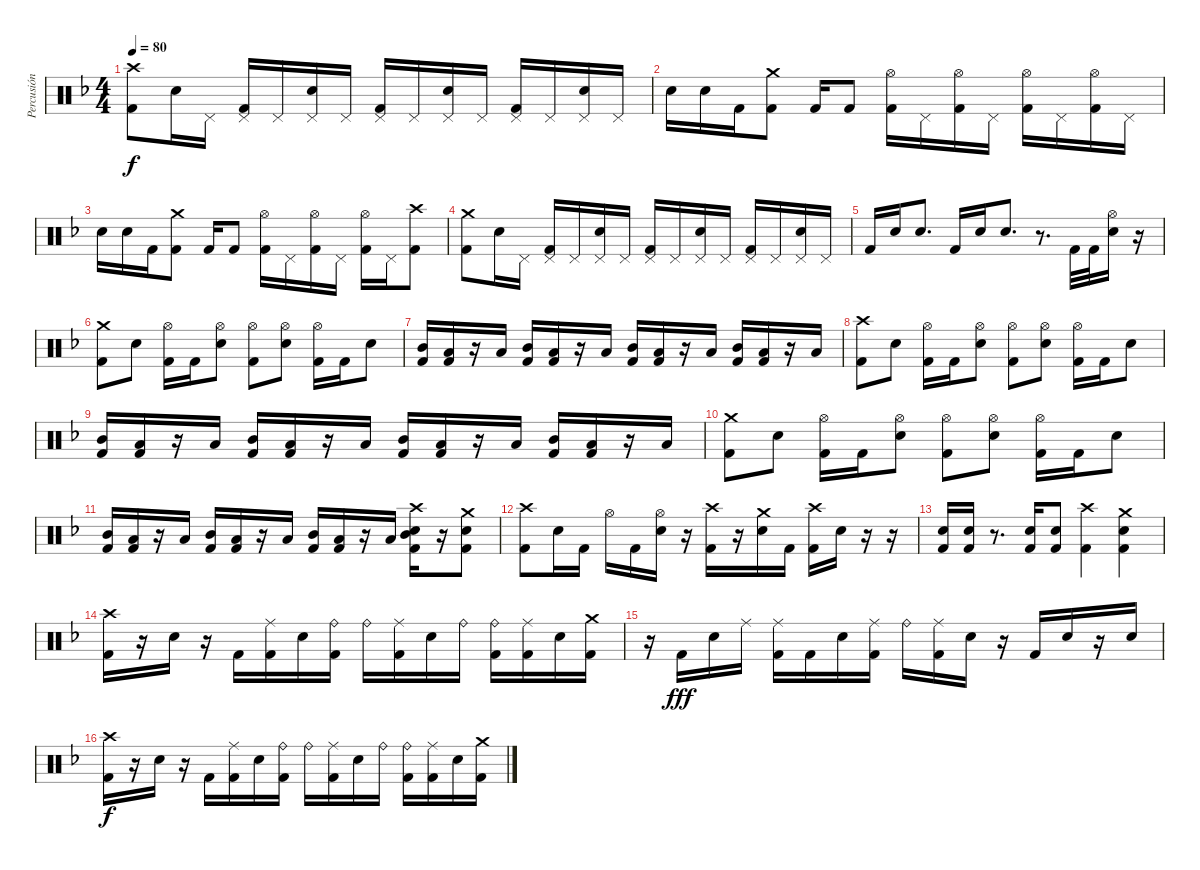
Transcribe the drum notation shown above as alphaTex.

\track ("Percusión" "Percusión") {instrument percussion}
\staff {score}
\articulation defaults
\ts (4 4)
\tempo 80
\clef neutral
\ks f
("Crash high (hit)" "Kick (hit) 2").8{dy f} "Electric Snare (hit)".16 "Pedal Hi-Hat (hit)".16 ("Pedal Hi-Hat (hit)" "Kick (hit) 2").16 "Pedal Hi-Hat (hit)".16 ("Pedal Hi-Hat (hit)" "Electric Snare (hit)").16 "Pedal Hi-Hat (hit)".16 ("Pedal Hi-Hat (hit)" "Kick (hit) 2").16 "Pedal Hi-Hat (hit)".16 ("Pedal Hi-Hat (hit)" "Electric Snare (hit)").16 "Pedal Hi-Hat (hit)".16 ("Pedal Hi-Hat (hit)" "Kick (hit) 2").16 "Pedal Hi-Hat (hit)".16 ("Pedal Hi-Hat (hit)" "Electric Snare (hit)").16 "Pedal Hi-Hat (hit)".16 |
"Electric Snare (hit)".16 "Electric Snare (hit)".16 "Kick (hit) 2".16 ("Crash medium (hit)" "Kick (hit) 2").8 "Kick (hit) 2".16 "Kick (hit) 2".8 ("Hi-Hat (open)" "Kick (hit) 2").16 "Pedal Hi-Hat (hit)".16 ("Hi-Hat (open)" "Kick (hit) 2").16 "Pedal Hi-Hat (hit)".16 ("Hi-Hat (open)" "Kick (hit) 2").16 "Pedal Hi-Hat (hit)".16 ("Hi-Hat (open)" "Kick (hit) 2").16 "Pedal Hi-Hat (hit)".16 |
"Electric Snare (hit)".16 "Electric Snare (hit)".16 "Kick (hit) 2".16 ("Crash medium (hit)" "Kick (hit) 2").8 "Kick (hit) 2".16 "Kick (hit) 2".8 ("Hi-Hat (open)" "Kick (hit) 2").16 "Pedal Hi-Hat (hit)".16 ("Hi-Hat (open)" "Kick (hit) 2").16 "Pedal Hi-Hat (hit)".16 ("Hi-Hat (open)" "Kick (hit) 2").16 "Pedal Hi-Hat (hit)".16 ("Crash high (hit)" "Kick (hit) 2").8 |
("Crash medium (hit)" "Kick (hit) 2").8 "Electric Snare (hit)".16 "Pedal Hi-Hat (hit)".16 ("Pedal Hi-Hat (hit)" "Kick (hit) 2").16 "Pedal Hi-Hat (hit)".16 ("Pedal Hi-Hat (hit)" "Electric Snare (hit)").16 "Pedal Hi-Hat (hit)".16 ("Pedal Hi-Hat (hit)" "Kick (hit) 2").16 "Pedal Hi-Hat (hit)".16 ("Pedal Hi-Hat (hit)" "Electric Snare (hit)").16 "Pedal Hi-Hat (hit)".16 ("Pedal Hi-Hat (hit)" "Kick (hit) 2").16 "Pedal Hi-Hat (hit)".16 ("Pedal Hi-Hat (hit)" "Electric Snare (hit)").16 "Pedal Hi-Hat (hit)".16 |
"Kick (hit) 2".16 "Electric Snare (hit)".16 "Electric Snare (hit)".8{d} "Kick (hit) 2".16 "Electric Snare (hit)".16 "Electric Snare (hit)".8{d} r.8{d} "Kick (hit) 2".32 "Kick (hit) 2".32 ("Hi-Hat (open)" "Electric Snare (hit)").16 r.16 |
("Crash medium (hit)" "Kick (hit) 2").8 "Electric Snare (hit)".8 ("Hi-Hat (open)" "Kick (hit) 2").16 "Kick (hit) 2".16 ("Hi-Hat (open)" "Electric Snare (hit)").8 ("Hi-Hat (open)" "Kick (hit) 2").8 ("Hi-Hat (open)" "Electric Snare (hit)").8 ("Hi-Hat (open)" "Kick (hit) 2").16 "Kick (hit) 2".16 "Electric Snare (hit)".8 |
("Mid Tom (hit)" "Kick (hit) 2").16 ("Low Tom (hit)" "Kick (hit) 2").16 r.16 "Low Tom (hit)".16 ("Mid Tom (hit)" "Kick (hit) 2").16 ("Low Tom (hit)" "Kick (hit) 2").16 r.16 "Low Tom (hit)".16 ("Mid Tom (hit)" "Kick (hit) 2").16 ("Low Tom (hit)" "Kick (hit) 2").16 r.16 "Low Tom (hit)".16 ("Mid Tom (hit)" "Kick (hit) 2").16 ("Low Tom (hit)" "Kick (hit) 2").16 r.16 "Low Tom (hit)".16 |
("Crash high (hit)" "Kick (hit) 2").8 "Electric Snare (hit)".8 ("Hi-Hat (open)" "Kick (hit) 2").16 "Kick (hit) 2".16 ("Hi-Hat (open)" "Electric Snare (hit)").8 ("Hi-Hat (open)" "Kick (hit) 2").8 ("Hi-Hat (open)" "Electric Snare (hit)").8 ("Hi-Hat (open)" "Kick (hit) 2").16 "Kick (hit) 2".16 "Electric Snare (hit)".8 |
("Mid Tom (hit)" "Kick (hit) 2").16 ("Low Tom (hit)" "Kick (hit) 2").16 r.16 "Low Tom (hit)".16 ("Mid Tom (hit)" "Kick (hit) 2").16 ("Low Tom (hit)" "Kick (hit) 2").16 r.16 "Low Tom (hit)".16 ("Mid Tom (hit)" "Kick (hit) 2").16 ("Low Tom (hit)" "Kick (hit) 2").16 r.16 "Low Tom (hit)".16 ("Mid Tom (hit)" "Kick (hit) 2").16 ("Low Tom (hit)" "Kick (hit) 2").16 r.16 "Low Tom (hit)".16 |
("Crash medium (hit)" "Kick (hit) 2").8 "Electric Snare (hit)".8 ("Hi-Hat (open)" "Kick (hit) 2").16 "Kick (hit) 2".16 ("Hi-Hat (open)" "Electric Snare (hit)").8 ("Hi-Hat (open)" "Kick (hit) 2").8 ("Hi-Hat (open)" "Electric Snare (hit)").8 ("Hi-Hat (open)" "Kick (hit) 2").16 "Kick (hit) 2".16 "Electric Snare (hit)".8 |
("Mid Tom (hit)" "Kick (hit) 2").16 ("Low Tom (hit)" "Kick (hit) 2").16 r.16 "Low Tom (hit)".16 ("Mid Tom (hit)" "Kick (hit) 2").16 ("Low Tom (hit)" "Kick (hit) 2").16 r.16 "Low Tom (hit)".16 ("Mid Tom (hit)" "Kick (hit) 2").16 ("Low Tom (hit)" "Kick (hit) 2").16 r.16 "Low Tom (hit)".16 ("Crash high (hit)" "Electric Snare (hit)" "Mid Tom (hit)" "Kick (hit) 2").16 r.16 ("Crash medium (hit)" "Electric Snare (hit)" "Kick (hit) 2").8 |
("Crash high (hit)" "Kick (hit) 2").8 "Electric Snare (hit)".16 "Kick (hit) 2".16 "Hi-Hat (open)".16 "Kick (hit) 2".16 ("Hi-Hat (open)" "Electric Snare (hit)").16 r.16 ("Crash high (hit)" "Kick (hit) 2").16 r.16 ("Crash medium (hit)" "Electric Snare (hit)").16 "Kick (hit) 2".16 ("Crash high (hit)" "Kick (hit) 2").16 "Electric Snare (hit)".16 r.16 r.16 |
("Electric Snare (hit)" "Kick (hit) 2").16 ("Electric Snare (hit)" "Kick (hit) 2").16 r.8{d} ("Electric Snare (hit)" "Kick (hit) 2").16 ("Electric Snare (hit)" "Kick (hit) 2").8 ("Crash high (hit)" "Kick (hit) 2").4 ("Crash medium (hit)" "Electric Snare (hit)" "Kick (hit) 2").4 |
("Crash high (hit)" "Kick (hit) 2").16 r.16 "Electric Snare (hit)".16 r.16 "Kick (hit) 2".16 ("Ride (middle)" "Kick (hit) 2").16 "Electric Snare (hit)".16 ("Ride (bell)" "Kick (hit) 2").16 "Ride (bell)".16 ("Ride (middle)" "Kick (hit) 2").16 "Electric Snare (hit)".16 "Ride (bell)".16 ("Ride (bell)" "Kick (hit) 2").16 ("Ride (middle)" "Kick (hit) 2").16 "Electric Snare (hit)".16 ("Crash medium (hit)" "Kick (hit) 2").16 |
r.16 "Kick (hit) 2".16{dy fff} "Electric Snare (hit)".16 "Ride (middle)".16 ("Ride (middle)" "Kick (hit) 2").16 "Kick (hit) 2".16 "Electric Snare (hit)".16 ("Ride (middle)" "Kick (hit) 2").16 "Ride (bell)".16 ("Ride (middle)" "Kick (hit) 2").16 "Electric Snare (hit)".16 r.16 "Kick (hit) 2".16 "Electric Snare (hit)".16 r.16 "Electric Snare (hit)".16 |
("Crash high (hit)" "Kick (hit) 2").16{dy f} r.16 "Electric Snare (hit)".16 r.16 "Kick (hit) 2".16 ("Ride (middle)" "Kick (hit) 2").16 "Electric Snare (hit)".16 ("Ride (bell)" "Kick (hit) 2").16 "Ride (bell)".16 ("Ride (middle)" "Kick (hit) 2").16 "Electric Snare (hit)".16 "Ride (bell)".16 ("Ride (bell)" "Kick (hit) 2").16 ("Ride (middle)" "Kick (hit) 2").16 "Electric Snare (hit)".16 ("Crash medium (hit)" "Kick (hit) 2").16
